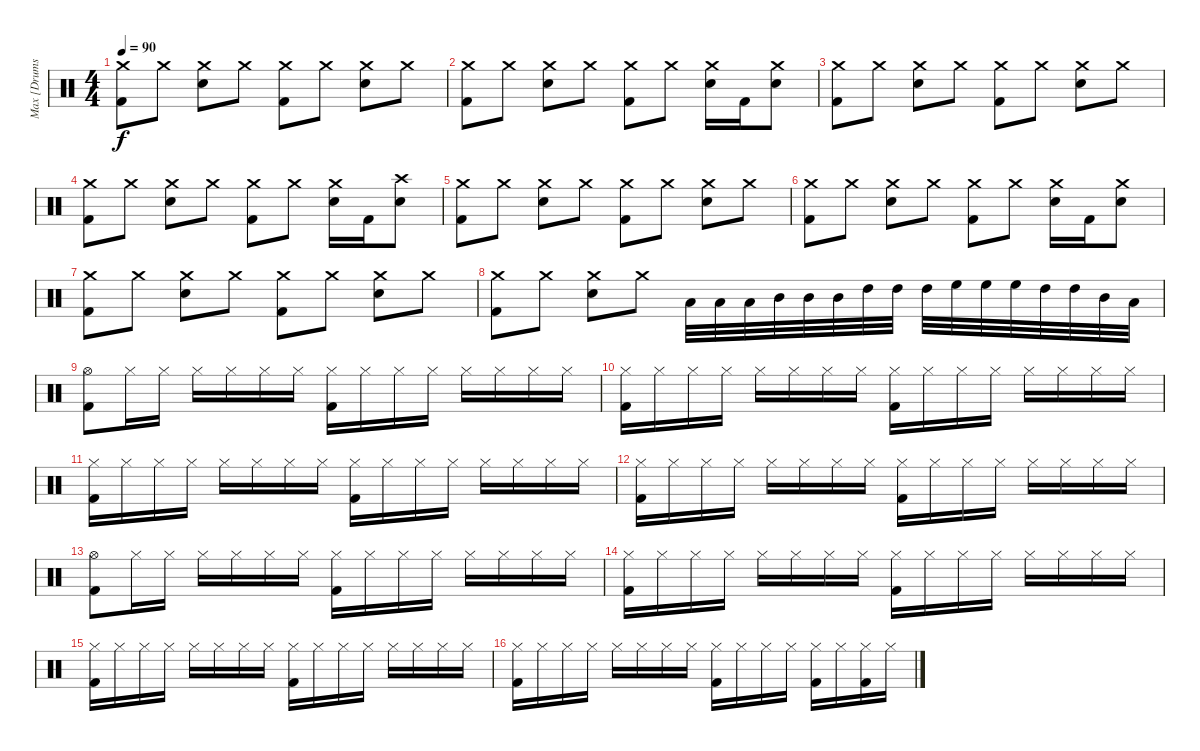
\track ("Max [Drums]" "Max [Drums") {instrument percussion}
\staff {score}
\articulation defaults
\ts (4 4)
\tempo 90
\clef neutral
\ks c
("Crash medium (hit)" "Kick (hit) 2").8{dy f} "Crash medium (hit)".8 ("Crash medium (hit)" "Snare (hit) 2").8 "Crash medium (hit)".8 ("Crash medium (hit)" "Kick (hit) 2").8 "Crash medium (hit)".8 ("Crash medium (hit)" "Snare (hit) 2").8 "Crash medium (hit)".8 |
("Crash medium (hit)" "Kick (hit) 2").8 "Crash medium (hit)".8 ("Crash medium (hit)" "Snare (hit) 2").8 "Crash medium (hit)".8 ("Crash medium (hit)" "Kick (hit) 2").8 "Crash medium (hit)".8 ("Crash medium (hit)" "Snare (hit) 2").16 "Kick (hit) 2".16 ("Crash medium (hit)" "Snare (hit) 2").8 |
("Crash medium (hit)" "Kick (hit) 2").8 "Crash medium (hit)".8 ("Crash medium (hit)" "Snare (hit) 2").8 "Crash medium (hit)".8 ("Crash medium (hit)" "Kick (hit) 2").8 "Crash medium (hit)".8 ("Crash medium (hit)" "Snare (hit) 2").8 "Crash medium (hit)".8 |
("Crash medium (hit)" "Kick (hit) 2").8 "Crash medium (hit)".8 ("Crash medium (hit)" "Snare (hit) 2").8 "Crash medium (hit)".8 ("Crash medium (hit)" "Kick (hit) 2").8 "Crash medium (hit)".8 ("Crash medium (hit)" "Snare (hit) 2").16 "Kick (hit) 2".16 ("Crash high (hit)" "Snare (hit) 2").8 |
("Crash medium (hit)" "Kick (hit) 2").8 "Crash medium (hit)".8 ("Crash medium (hit)" "Snare (hit) 2").8 "Crash medium (hit)".8 ("Crash medium (hit)" "Kick (hit) 2").8 "Crash medium (hit)".8 ("Crash medium (hit)" "Snare (hit) 2").8 "Crash medium (hit)".8 |
("Crash medium (hit)" "Kick (hit) 2").8 "Crash medium (hit)".8 ("Crash medium (hit)" "Snare (hit) 2").8 "Crash medium (hit)".8 ("Crash medium (hit)" "Kick (hit) 2").8 "Crash medium (hit)".8 ("Crash medium (hit)" "Snare (hit) 2").16 "Kick (hit) 2".16 ("Crash medium (hit)" "Snare (hit) 2").8 |
("Crash medium (hit)" "Kick (hit) 2").8 "Crash medium (hit)".8 ("Crash medium (hit)" "Snare (hit) 2").8 "Crash medium (hit)".8 ("Crash medium (hit)" "Kick (hit) 2").8 "Crash medium (hit)".8 ("Crash medium (hit)" "Snare (hit) 2").8 "Crash medium (hit)".8 |
("Crash medium (hit)" "Kick (hit) 2").8 "Crash medium (hit)".8 ("Crash medium (hit)" "Snare (hit) 2").8 "Crash medium (hit)".8 "Low Tom (hit)".32 "Low Tom (hit)".32 "Low Tom (hit)".32 "Mid Tom (hit)".32 "Mid Tom (hit)".32 "Mid Tom (hit)".32 "High Tom (hit)".32 "High Tom (hit)".32 "High Tom (hit)".32 "High Floor Tom (hit)".32 "High Floor Tom (hit)".32 "High Floor Tom (hit)".32 "High Tom (hit)".32 "High Tom (hit)".32 "Mid Tom (hit)".32 "Low Tom (hit)".32 |
("Hi-Hat (open)" "Kick (hit) 2").8 "Hi-Hat (closed)".16 "Hi-Hat (closed)".16 "Hi-Hat (closed)".16 "Hi-Hat (closed)".16 "Hi-Hat (closed)".16 "Hi-Hat (closed)".16 ("Hi-Hat (closed)" "Kick (hit) 2").16 "Hi-Hat (closed)".16 "Hi-Hat (closed)".16 "Hi-Hat (closed)".16 "Hi-Hat (closed)".16 "Hi-Hat (closed)".16 "Hi-Hat (closed)".16 "Hi-Hat (closed)".16 |
("Hi-Hat (closed)" "Kick (hit) 2").16 "Hi-Hat (closed)".16 "Hi-Hat (closed)".16 "Hi-Hat (closed)".16 "Hi-Hat (closed)".16 "Hi-Hat (closed)".16 "Hi-Hat (closed)".16 "Hi-Hat (closed)".16 ("Hi-Hat (closed)" "Kick (hit) 2").16 "Hi-Hat (closed)".16 "Hi-Hat (closed)".16 "Hi-Hat (closed)".16 "Hi-Hat (closed)".16 "Hi-Hat (closed)".16 "Hi-Hat (closed)".16 "Hi-Hat (closed)".16 |
("Hi-Hat (closed)" "Kick (hit) 2").16 "Hi-Hat (closed)".16 "Hi-Hat (closed)".16 "Hi-Hat (closed)".16 "Hi-Hat (closed)".16 "Hi-Hat (closed)".16 "Hi-Hat (closed)".16 "Hi-Hat (closed)".16 ("Hi-Hat (closed)" "Kick (hit) 2").16 "Hi-Hat (closed)".16 "Hi-Hat (closed)".16 "Hi-Hat (closed)".16 "Hi-Hat (closed)".16 "Hi-Hat (closed)".16 "Hi-Hat (closed)".16 "Hi-Hat (closed)".16 |
("Hi-Hat (closed)" "Kick (hit) 2").16 "Hi-Hat (closed)".16 "Hi-Hat (closed)".16 "Hi-Hat (closed)".16 "Hi-Hat (closed)".16 "Hi-Hat (closed)".16 "Hi-Hat (closed)".16 "Hi-Hat (closed)".16 ("Hi-Hat (closed)" "Kick (hit) 2").16 "Hi-Hat (closed)".16 "Hi-Hat (closed)".16 "Hi-Hat (closed)".16 "Hi-Hat (closed)".16 "Hi-Hat (closed)".16 "Hi-Hat (closed)".16 "Hi-Hat (closed)".16 |
("Hi-Hat (open)" "Kick (hit) 2").8 "Hi-Hat (closed)".16 "Hi-Hat (closed)".16 "Hi-Hat (closed)".16 "Hi-Hat (closed)".16 "Hi-Hat (closed)".16 "Hi-Hat (closed)".16 ("Hi-Hat (closed)" "Kick (hit) 2").16 "Hi-Hat (closed)".16 "Hi-Hat (closed)".16 "Hi-Hat (closed)".16 "Hi-Hat (closed)".16 "Hi-Hat (closed)".16 "Hi-Hat (closed)".16 "Hi-Hat (closed)".16 |
("Hi-Hat (closed)" "Kick (hit) 2").16 "Hi-Hat (closed)".16 "Hi-Hat (closed)".16 "Hi-Hat (closed)".16 "Hi-Hat (closed)".16 "Hi-Hat (closed)".16 "Hi-Hat (closed)".16 "Hi-Hat (closed)".16 ("Hi-Hat (closed)" "Kick (hit) 2").16 "Hi-Hat (closed)".16 "Hi-Hat (closed)".16 "Hi-Hat (closed)".16 "Hi-Hat (closed)".16 "Hi-Hat (closed)".16 "Hi-Hat (closed)".16 "Hi-Hat (closed)".16 |
("Hi-Hat (closed)" "Kick (hit) 2").16 "Hi-Hat (closed)".16 "Hi-Hat (closed)".16 "Hi-Hat (closed)".16 "Hi-Hat (closed)".16 "Hi-Hat (closed)".16 "Hi-Hat (closed)".16 "Hi-Hat (closed)".16 ("Hi-Hat (closed)" "Kick (hit) 2").16 "Hi-Hat (closed)".16 "Hi-Hat (closed)".16 "Hi-Hat (closed)".16 "Hi-Hat (closed)".16 "Hi-Hat (closed)".16 "Hi-Hat (closed)".16 "Hi-Hat (closed)".16 |
("Hi-Hat (closed)" "Kick (hit) 2").16 "Hi-Hat (closed)".16 "Hi-Hat (closed)".16 "Hi-Hat (closed)".16 "Hi-Hat (closed)".16 "Hi-Hat (closed)".16 "Hi-Hat (closed)".16 "Hi-Hat (closed)".16 ("Hi-Hat (closed)" "Kick (hit) 2").16 "Hi-Hat (closed)".16 "Hi-Hat (closed)".16 "Hi-Hat (closed)".16 ("Hi-Hat (closed)" "Kick (hit) 2").16 "Hi-Hat (closed)".16 ("Hi-Hat (closed)" "Kick (hit) 2").16 "Hi-Hat (closed)".16
